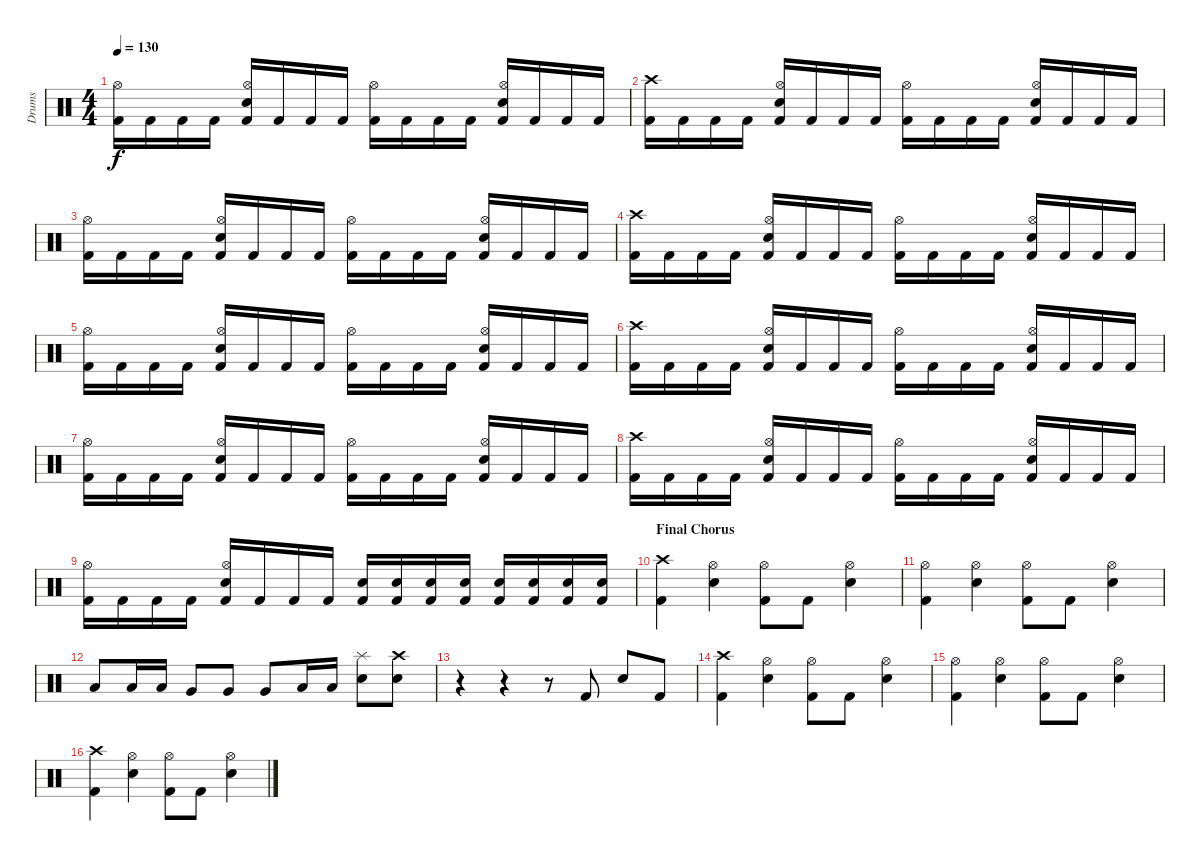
\track ("Drums" "Drums") {instrument percussion}
\staff {score}
\articulation defaults
\ts (4 4)
\tempo 130
\clef neutral
\ks c
("Kick (hit) 2" "Hi-Hat (open)").16{dy f} "Kick (hit) 2".16 "Kick (hit) 2".16 "Kick (hit) 2".16 ("Kick (hit) 2" "Hi-Hat (open)" "Snare (hit) 2").16 "Kick (hit) 2".16 "Kick (hit) 2".16 "Kick (hit) 2".16 ("Kick (hit) 2" "Hi-Hat (open)").16 "Kick (hit) 2".16 "Kick (hit) 2".16 "Kick (hit) 2".16 ("Kick (hit) 2" "Hi-Hat (open)" "Snare (hit) 2").16 "Kick (hit) 2".16 "Kick (hit) 2".16 "Kick (hit) 2".16 |
("Kick (hit) 2" "Crash high (hit)").16 "Kick (hit) 2".16 "Kick (hit) 2".16 "Kick (hit) 2".16 ("Kick (hit) 2" "Hi-Hat (open)" "Snare (hit) 2").16 "Kick (hit) 2".16 "Kick (hit) 2".16 "Kick (hit) 2".16 ("Kick (hit) 2" "Hi-Hat (open)").16 "Kick (hit) 2".16 "Kick (hit) 2".16 "Kick (hit) 2".16 ("Kick (hit) 2" "Hi-Hat (open)" "Snare (hit) 2").16 "Kick (hit) 2".16 "Kick (hit) 2".16 "Kick (hit) 2".16 |
("Kick (hit) 2" "Hi-Hat (open)").16 "Kick (hit) 2".16 "Kick (hit) 2".16 "Kick (hit) 2".16 ("Kick (hit) 2" "Hi-Hat (open)" "Snare (hit) 2").16 "Kick (hit) 2".16 "Kick (hit) 2".16 "Kick (hit) 2".16 ("Kick (hit) 2" "Hi-Hat (open)").16 "Kick (hit) 2".16 "Kick (hit) 2".16 "Kick (hit) 2".16 ("Kick (hit) 2" "Hi-Hat (open)" "Snare (hit) 2").16 "Kick (hit) 2".16 "Kick (hit) 2".16 "Kick (hit) 2".16 |
("Kick (hit) 2" "Crash high (hit)").16 "Kick (hit) 2".16 "Kick (hit) 2".16 "Kick (hit) 2".16 ("Kick (hit) 2" "Hi-Hat (open)" "Snare (hit) 2").16 "Kick (hit) 2".16 "Kick (hit) 2".16 "Kick (hit) 2".16 ("Kick (hit) 2" "Hi-Hat (open)").16 "Kick (hit) 2".16 "Kick (hit) 2".16 "Kick (hit) 2".16 ("Kick (hit) 2" "Hi-Hat (open)" "Snare (hit) 2").16 "Kick (hit) 2".16 "Kick (hit) 2".16 "Kick (hit) 2".16 |
("Kick (hit) 2" "Hi-Hat (open)").16 "Kick (hit) 2".16 "Kick (hit) 2".16 "Kick (hit) 2".16 ("Kick (hit) 2" "Hi-Hat (open)" "Snare (hit) 2").16 "Kick (hit) 2".16 "Kick (hit) 2".16 "Kick (hit) 2".16 ("Kick (hit) 2" "Hi-Hat (open)").16 "Kick (hit) 2".16 "Kick (hit) 2".16 "Kick (hit) 2".16 ("Kick (hit) 2" "Hi-Hat (open)" "Snare (hit) 2").16 "Kick (hit) 2".16 "Kick (hit) 2".16 "Kick (hit) 2".16 |
("Kick (hit) 2" "Crash high (hit)").16 "Kick (hit) 2".16 "Kick (hit) 2".16 "Kick (hit) 2".16 ("Kick (hit) 2" "Hi-Hat (open)" "Snare (hit) 2").16 "Kick (hit) 2".16 "Kick (hit) 2".16 "Kick (hit) 2".16 ("Kick (hit) 2" "Hi-Hat (open)").16 "Kick (hit) 2".16 "Kick (hit) 2".16 "Kick (hit) 2".16 ("Kick (hit) 2" "Hi-Hat (open)" "Snare (hit) 2").16 "Kick (hit) 2".16 "Kick (hit) 2".16 "Kick (hit) 2".16 |
("Kick (hit) 2" "Hi-Hat (open)").16 "Kick (hit) 2".16 "Kick (hit) 2".16 "Kick (hit) 2".16 ("Kick (hit) 2" "Hi-Hat (open)" "Snare (hit) 2").16 "Kick (hit) 2".16 "Kick (hit) 2".16 "Kick (hit) 2".16 ("Kick (hit) 2" "Hi-Hat (open)").16 "Kick (hit) 2".16 "Kick (hit) 2".16 "Kick (hit) 2".16 ("Kick (hit) 2" "Hi-Hat (open)" "Snare (hit) 2").16 "Kick (hit) 2".16 "Kick (hit) 2".16 "Kick (hit) 2".16 |
("Kick (hit) 2" "Crash high (hit)").16 "Kick (hit) 2".16 "Kick (hit) 2".16 "Kick (hit) 2".16 ("Kick (hit) 2" "Hi-Hat (open)" "Snare (hit) 2").16 "Kick (hit) 2".16 "Kick (hit) 2".16 "Kick (hit) 2".16 ("Kick (hit) 2" "Hi-Hat (open)").16 "Kick (hit) 2".16 "Kick (hit) 2".16 "Kick (hit) 2".16 ("Kick (hit) 2" "Hi-Hat (open)" "Snare (hit) 2").16 "Kick (hit) 2".16 "Kick (hit) 2".16 "Kick (hit) 2".16 |
("Kick (hit) 2" "Hi-Hat (open)").16 "Kick (hit) 2".16 "Kick (hit) 2".16 "Kick (hit) 2".16 ("Kick (hit) 2" "Hi-Hat (open)" "Snare (hit) 2").16 "Kick (hit) 2".16 "Kick (hit) 2".16 "Kick (hit) 2".16 ("Kick (hit) 2" "Snare (hit) 2").16 ("Kick (hit) 2" "Snare (hit) 2").16 ("Kick (hit) 2" "Snare (hit) 2").16 ("Kick (hit) 2" "Snare (hit) 2").16 ("Kick (hit) 2" "Snare (hit) 2").16 ("Kick (hit) 2" "Snare (hit) 2").16 ("Kick (hit) 2" "Snare (hit) 2").16 ("Kick (hit) 2" "Snare (hit) 2").16 |
\section ("" "Final Chorus")
("Kick (hit) 2" "Crash high (hit)").4 ("Snare (hit) 2" "Hi-Hat (open)").4 ("Kick (hit) 2" "Hi-Hat (open)").8 "Kick (hit) 2".8 ("Snare (hit) 2" "Hi-Hat (open)").4 |
("Kick (hit) 2" "Hi-Hat (open)").4 ("Snare (hit) 2" "Hi-Hat (open)").4 ("Kick (hit) 2" "Hi-Hat (open)").8 "Kick (hit) 2".8 ("Snare (hit) 2" "Hi-Hat (open)").4 |
"Low Tom (hit)".8 "Low Tom (hit)".16 "Low Tom (hit)".16 "Very Low Tom (hit)".8 "Very Low Tom (hit)".8 "Very Low Tom (hit)".8 "Low Floor Tom (hit)".16 "Low Floor Tom (hit)".16 ("Splash (hit)" "Snare (hit) 2").8 ("Crash high (hit)" "Snare (hit) 2").8 |
r.4 r.4 r.8 "Kick (hit) 2".8 "Snare (hit) 2".8 "Kick (hit) 2".8 |
("Kick (hit) 2" "Crash high (hit)").4 ("Snare (hit) 2" "Hi-Hat (open)").4 ("Kick (hit) 2" "Hi-Hat (open)").8 "Kick (hit) 2".8 ("Snare (hit) 2" "Hi-Hat (open)").4 |
("Kick (hit) 2" "Hi-Hat (open)").4 ("Snare (hit) 2" "Hi-Hat (open)").4 ("Kick (hit) 2" "Hi-Hat (open)").8 "Kick (hit) 2".8 ("Snare (hit) 2" "Hi-Hat (open)").4 |
("Kick (hit) 2" "Crash high (hit)").4 ("Snare (hit) 2" "Hi-Hat (open)").4 ("Kick (hit) 2" "Hi-Hat (open)").8 "Kick (hit) 2".8 ("Snare (hit) 2" "Hi-Hat (open)").4
